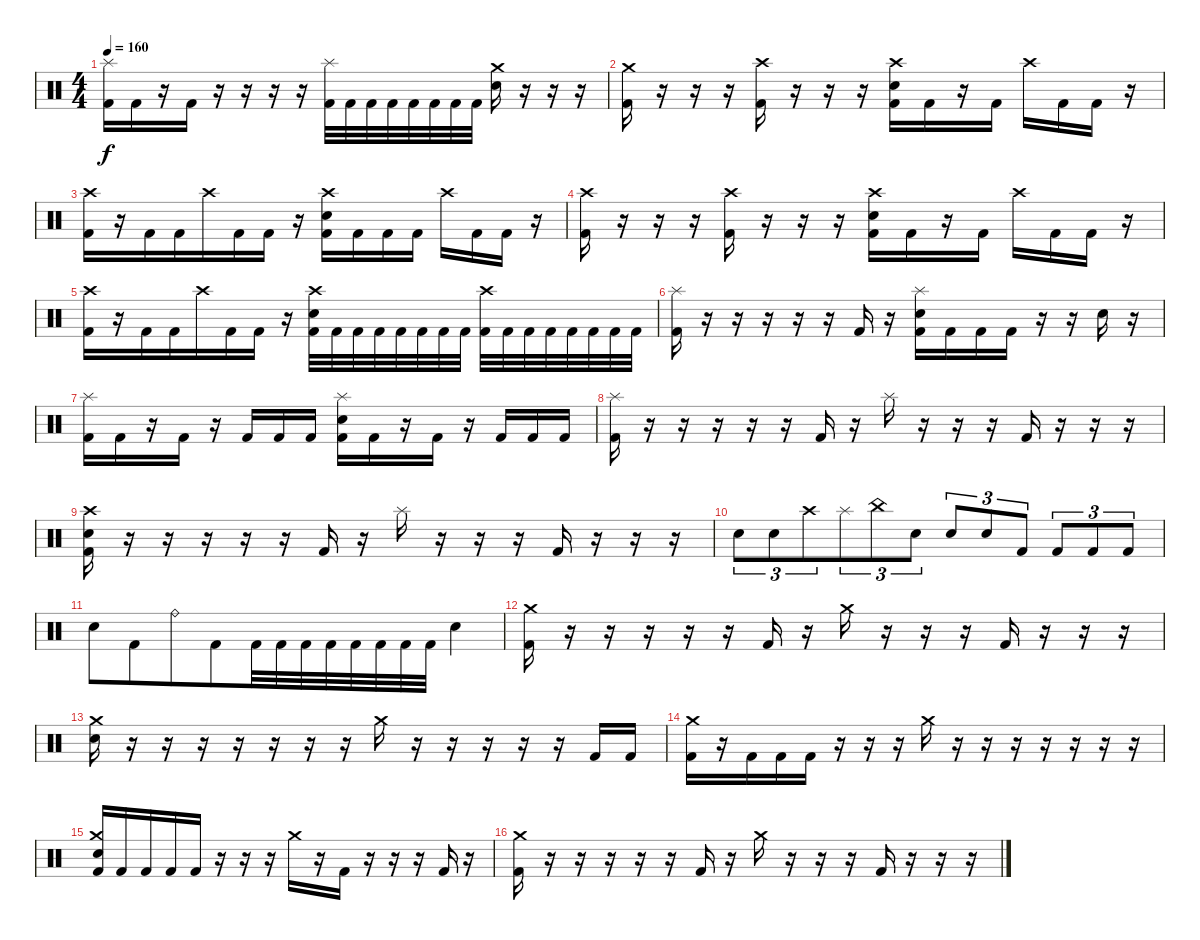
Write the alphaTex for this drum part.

\track "" {instrument percussion}
\staff {score}
\articulation defaults
\ts (4 4)
\tempo 160
\clef neutral
\ks c
("Splash (hit)" "Kick (hit) 2").16{dy f} "Kick (hit) 2".16 r.16 "Kick (hit) 2".16 r.16{beam merge} r.16 r.16 r.16 ("Splash (hit)" "Kick (hit) 2").32 "Kick (hit) 2".32 "Kick (hit) 2".32{beam merge} "Kick (hit) 2".32 "Kick (hit) 2".32{beam merge} "Kick (hit) 2".32 "Kick (hit) 2".32 "Kick (hit) 2".32 ("Crash medium (hit)" "Electric Snare (hit)").16 r.16 r.16{beam merge} r.16 |
("Crash medium (hit)" "Kick (hit) 2").16 r.16 r.16{beam merge} r.16 ("Crash high (hit)" "Kick (hit) 2").16 r.16 r.16 r.16{beam merge} ("Crash high (hit)" "Electric Snare (hit)" "Kick (hit) 2").16 "Kick (hit) 2".16 r.16 "Kick (hit) 2".16 "Crash high (hit)".16{beam merge} "Kick (hit) 2".16 "Kick (hit) 2".16 r.16 |
("Crash high (hit)" "Kick (hit) 2").16 r.16 "Kick (hit) 2".16 "Kick (hit) 2".16{beam merge} "Crash high (hit)".16 "Kick (hit) 2".16 "Kick (hit) 2".16 r.16 ("Crash high (hit)" "Electric Snare (hit)" "Kick (hit) 2").16{beam merge} "Kick (hit) 2".16 "Kick (hit) 2".16 "Kick (hit) 2".16 "Crash high (hit)".16 "Kick (hit) 2".16 "Kick (hit) 2".16 r.16 |
("Crash high (hit)" "Kick (hit) 2").16 r.16 r.16{beam merge} r.16 ("Crash high (hit)" "Kick (hit) 2").16 r.16 r.16 r.16{beam merge} ("Crash high (hit)" "Electric Snare (hit)" "Kick (hit) 2").16 "Kick (hit) 2".16 r.16 "Kick (hit) 2".16 "Crash high (hit)".16{beam merge} "Kick (hit) 2".16 "Kick (hit) 2".16 r.16 |
("Crash high (hit)" "Kick (hit) 2").16 r.16 "Kick (hit) 2".16 "Kick (hit) 2".16{beam merge} "Crash high (hit)".16 "Kick (hit) 2".16 "Kick (hit) 2".16 r.16 ("Crash high (hit)" "Electric Snare (hit)" "Kick (hit) 2").32 "Kick (hit) 2".32{beam merge} "Kick (hit) 2".32 "Kick (hit) 2".32 "Kick (hit) 2".32{beam merge} "Kick (hit) 2".32 "Kick (hit) 2".32 "Kick (hit) 2".32 ("Crash high (hit)" "Kick (hit) 2").32 "Kick (hit) 2".32 "Kick (hit) 2".32 "Kick (hit) 2".32 "Kick (hit) 2".32{beam merge} "Kick (hit) 2".32{beam merge} "Kick (hit) 2".32 "Kick (hit) 2".32 |
("Splash (hit)" "Kick (hit) 2").16 r.16 r.16 r.16 r.16{beam merge} r.16 "Kick (hit) 2".16 r.16 ("Splash (hit)" "Electric Snare (hit)" "Kick (hit) 2").16 "Kick (hit) 2".16 "Kick (hit) 2".16 "Kick (hit) 2".16 r.16 r.16 "Electric Snare (hit)".16{beam merge} r.16 |
("Splash (hit)" "Kick (hit) 2").16 "Kick (hit) 2".16 r.16 "Kick (hit) 2".16 r.16{beam merge} "Kick (hit) 2".16{beam merge} "Kick (hit) 2".16 "Kick (hit) 2".16 ("Splash (hit)" "Electric Snare (hit)" "Kick (hit) 2").16 "Kick (hit) 2".16 r.16 "Kick (hit) 2".16 r.16 "Kick (hit) 2".16 "Kick (hit) 2".16{beam merge} "Kick (hit) 2".16 |
("Splash (hit)" "Kick (hit) 2").16 r.16 r.16 r.16 r.16{beam merge} r.16 "Kick (hit) 2".16 r.16 "Splash (hit)".16 r.16 r.16 r.16 "Kick (hit) 2".16 r.16 r.16{beam merge} r.16 |
("Crash high (hit)" "Electric Snare (hit)" "Kick (hit) 2").16 r.16 r.16 r.16 r.16{beam merge} r.16 "Kick (hit) 2".16 r.16 "Splash (hit)".16 r.16 r.16{beam merge} r.16 "Kick (hit) 2".16 r.16 r.16{beam merge} r.16 |
"Electric Snare (hit)".8{tu (3 2)} "Electric Snare (hit)".8{tu (3 2) beam merge} "Crash high (hit)".8{tu (3 2) beam merge} "Splash (hit)".8{tu (3 2)} "China (hit)".8{tu (3 2) beam merge} "Electric Snare (hit)".8{tu (3 2)} "Electric Snare (hit)".8{tu (3 2)} "Electric Snare (hit)".8{tu (3 2)} "Kick (hit) 2".8{tu (3 2)} "Kick (hit) 2".8{tu (3 2)} "Kick (hit) 2".8{tu (3 2)} "Kick (hit) 2".8{tu (3 2)} |
"Electric Snare (hit)".8{beam merge} "Kick (hit) 2".8{beam merge} "Ride (bell)".8 "Kick (hit) 2".8{beam merge} "Kick (hit) 2".32 "Kick (hit) 2".32{beam merge} "Kick (hit) 2".32 "Kick (hit) 2".32 "Kick (hit) 2".32{beam merge} "Kick (hit) 2".32 "Kick (hit) 2".32{beam merge} "Kick (hit) 2".32 "Electric Snare (hit)".4 |
("Crash medium (hit)" "Kick (hit) 2").16 r.16 r.16{beam merge} r.16{beam merge} r.16 r.16 "Kick (hit) 2".16 r.16 "Crash medium (hit)".16 r.16{beam merge} r.16 r.16{beam merge} "Kick (hit) 2".16 r.16 r.16 r.16 |
("Crash medium (hit)" "Electric Snare (hit)").16 r.16 r.16{beam merge} r.16{beam merge} r.16 r.16 r.16 r.16 "Crash medium (hit)".16 r.16{beam merge} r.16 r.16{beam merge} r.16 r.16 "Kick (hit) 2".16 "Kick (hit) 2".16 |
("Crash medium (hit)" "Kick (hit) 2").16 r.16 "Kick (hit) 2".16{beam merge} "Kick (hit) 2".16{beam merge} "Kick (hit) 2".16 r.16 r.16 r.16 "Crash medium (hit)".16 r.16{beam merge} r.16 r.16{beam merge} r.16 r.16 r.16 r.16 |
("Crash medium (hit)" "Electric Snare (hit)" "Kick (hit) 2").16 "Kick (hit) 2".16 "Kick (hit) 2".16{beam merge} "Kick (hit) 2".16{beam merge} "Kick (hit) 2".16 r.16 r.16 r.16 "Crash medium (hit)".16 r.16{beam merge} "Kick (hit) 2".16 r.16{beam merge} r.16 r.16 "Kick (hit) 2".16 r.16 |
("Crash medium (hit)" "Kick (hit) 2").16 r.16 r.16{beam merge} r.16{beam merge} r.16 r.16 "Kick (hit) 2".16 r.16 "Crash medium (hit)".16 r.16{beam merge} r.16 r.16{beam merge} "Kick (hit) 2".16 r.16 r.16 r.16
